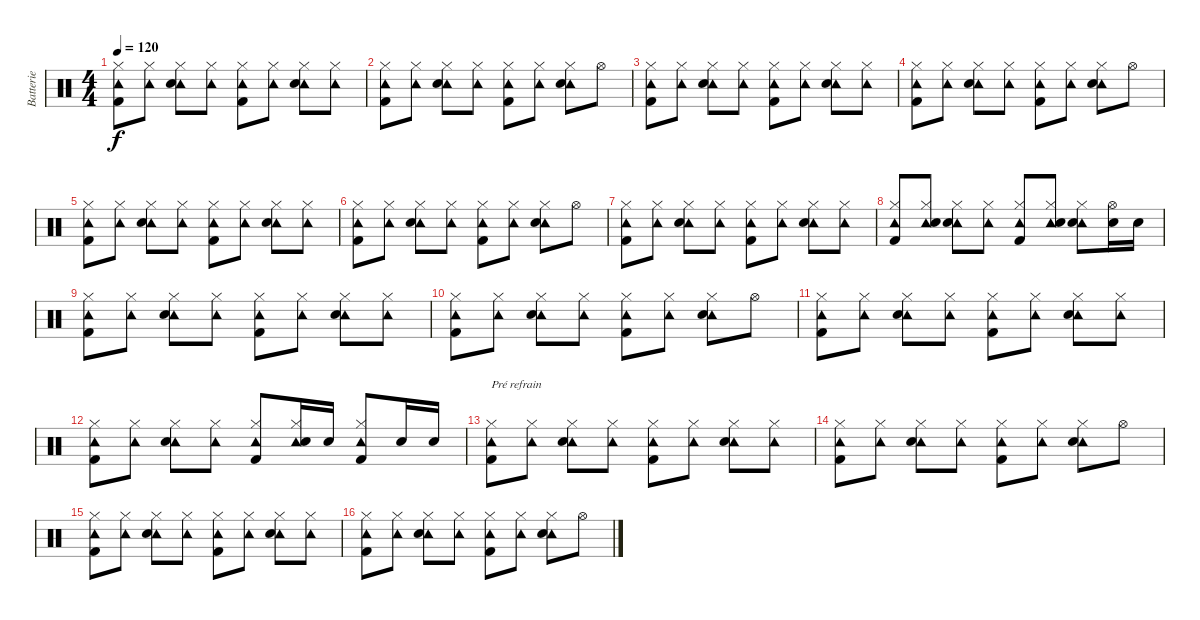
\track ("Batterie" "Batterie") {instrument percussion}
\staff {score}
\articulation defaults
\ts (4 4)
\tempo 120
\clef neutral
\ks c
("Tambourine (hit)" "Hi-Hat (closed)" "Kick (hit) 2").8{dy f} ("Tambourine (hit)" "Hi-Hat (closed)").8 ("Tambourine (hit)" "Hi-Hat (closed)" "Electric Snare (hit)").8 ("Tambourine (hit)" "Hi-Hat (closed)").8 ("Tambourine (hit)" "Hi-Hat (closed)" "Kick (hit) 2").8 ("Tambourine (hit)" "Hi-Hat (closed)").8 ("Tambourine (hit)" "Hi-Hat (closed)" "Electric Snare (hit)").8 ("Tambourine (hit)" "Hi-Hat (closed)").8 |
("Tambourine (hit)" "Hi-Hat (closed)" "Kick (hit) 2").8 ("Tambourine (hit)" "Hi-Hat (closed)").8 ("Tambourine (hit)" "Hi-Hat (closed)" "Electric Snare (hit)").8 ("Tambourine (hit)" "Hi-Hat (closed)").8 ("Tambourine (hit)" "Hi-Hat (closed)" "Kick (hit) 2").8 ("Tambourine (hit)" "Hi-Hat (closed)").8 ("Tambourine (hit)" "Hi-Hat (closed)" "Electric Snare (hit)").8 "Hi-Hat (open)".8 |
("Tambourine (hit)" "Hi-Hat (closed)" "Kick (hit) 2").8 ("Tambourine (hit)" "Hi-Hat (closed)").8 ("Tambourine (hit)" "Hi-Hat (closed)" "Electric Snare (hit)").8 ("Tambourine (hit)" "Hi-Hat (closed)").8 ("Tambourine (hit)" "Hi-Hat (closed)" "Kick (hit) 2").8 ("Tambourine (hit)" "Hi-Hat (closed)").8 ("Tambourine (hit)" "Hi-Hat (closed)" "Electric Snare (hit)").8 ("Tambourine (hit)" "Hi-Hat (closed)").8 |
("Tambourine (hit)" "Hi-Hat (closed)" "Kick (hit) 2").8 ("Tambourine (hit)" "Hi-Hat (closed)").8 ("Tambourine (hit)" "Hi-Hat (closed)" "Electric Snare (hit)").8 ("Tambourine (hit)" "Hi-Hat (closed)").8 ("Tambourine (hit)" "Hi-Hat (closed)" "Kick (hit) 2").8 ("Tambourine (hit)" "Hi-Hat (closed)").8 ("Tambourine (hit)" "Hi-Hat (closed)" "Electric Snare (hit)").8 "Hi-Hat (open)".8 |
("Tambourine (hit)" "Hi-Hat (closed)" "Kick (hit) 2").8 ("Tambourine (hit)" "Hi-Hat (closed)").8 ("Tambourine (hit)" "Hi-Hat (closed)" "Electric Snare (hit)").8 ("Tambourine (hit)" "Hi-Hat (closed)").8 ("Tambourine (hit)" "Hi-Hat (closed)" "Kick (hit) 2").8 ("Tambourine (hit)" "Hi-Hat (closed)").8 ("Tambourine (hit)" "Hi-Hat (closed)" "Electric Snare (hit)").8 ("Tambourine (hit)" "Hi-Hat (closed)").8 |
("Tambourine (hit)" "Hi-Hat (closed)" "Kick (hit) 2").8 ("Tambourine (hit)" "Hi-Hat (closed)").8 ("Tambourine (hit)" "Hi-Hat (closed)" "Electric Snare (hit)").8 ("Tambourine (hit)" "Hi-Hat (closed)").8 ("Tambourine (hit)" "Hi-Hat (closed)" "Kick (hit) 2").8 ("Tambourine (hit)" "Hi-Hat (closed)").8 ("Tambourine (hit)" "Hi-Hat (closed)" "Electric Snare (hit)").8 "Hi-Hat (open)".8 |
("Tambourine (hit)" "Hi-Hat (closed)" "Kick (hit) 2").8 ("Tambourine (hit)" "Hi-Hat (closed)").8 ("Tambourine (hit)" "Hi-Hat (closed)" "Electric Snare (hit)").8 ("Tambourine (hit)" "Hi-Hat (closed)").8 ("Tambourine (hit)" "Hi-Hat (closed)" "Kick (hit) 2").8 ("Tambourine (hit)" "Hi-Hat (closed)").8 ("Tambourine (hit)" "Hi-Hat (closed)" "Electric Snare (hit)").8 ("Tambourine (hit)" "Hi-Hat (closed)").8 |
("Tambourine (hit)" "Hi-Hat (closed)" "Kick (hit) 2").8 ("Tambourine (hit)" "Hi-Hat (closed)" "Electric Snare (hit)").8 ("Tambourine (hit)" "Hi-Hat (closed)" "Electric Snare (hit)").8 ("Tambourine (hit)" "Hi-Hat (closed)").8 ("Tambourine (hit)" "Hi-Hat (closed)" "Kick (hit) 2").8 ("Tambourine (hit)" "Hi-Hat (closed)" "Electric Snare (hit)").8 ("Tambourine (hit)" "Hi-Hat (closed)" "Electric Snare (hit)").8 ("Hi-Hat (open)" "Electric Snare (hit)").16 "Electric Snare (hit)".16 |
("Tambourine (hit)" "Hi-Hat (closed)" "Kick (hit) 2").8 ("Tambourine (hit)" "Hi-Hat (closed)").8 ("Tambourine (hit)" "Hi-Hat (closed)" "Electric Snare (hit)").8 ("Tambourine (hit)" "Hi-Hat (closed)").8 ("Tambourine (hit)" "Hi-Hat (closed)" "Kick (hit) 2").8 ("Tambourine (hit)" "Hi-Hat (closed)").8 ("Tambourine (hit)" "Hi-Hat (closed)" "Electric Snare (hit)").8 ("Tambourine (hit)" "Hi-Hat (closed)").8 |
("Tambourine (hit)" "Hi-Hat (closed)" "Kick (hit) 2").8 ("Tambourine (hit)" "Hi-Hat (closed)").8 ("Tambourine (hit)" "Hi-Hat (closed)" "Electric Snare (hit)").8 ("Tambourine (hit)" "Hi-Hat (closed)").8 ("Tambourine (hit)" "Hi-Hat (closed)" "Kick (hit) 2").8 ("Tambourine (hit)" "Hi-Hat (closed)").8 ("Tambourine (hit)" "Hi-Hat (closed)" "Electric Snare (hit)").8 "Hi-Hat (open)".8 |
("Tambourine (hit)" "Hi-Hat (closed)" "Kick (hit) 2").8 ("Tambourine (hit)" "Hi-Hat (closed)").8 ("Tambourine (hit)" "Hi-Hat (closed)" "Electric Snare (hit)").8 ("Tambourine (hit)" "Hi-Hat (closed)").8 ("Tambourine (hit)" "Hi-Hat (closed)" "Kick (hit) 2").8 ("Tambourine (hit)" "Hi-Hat (closed)").8 ("Tambourine (hit)" "Hi-Hat (closed)" "Electric Snare (hit)").8 ("Tambourine (hit)" "Hi-Hat (closed)").8 |
("Tambourine (hit)" "Hi-Hat (closed)" "Kick (hit) 2").8 ("Tambourine (hit)" "Hi-Hat (closed)").8 ("Tambourine (hit)" "Hi-Hat (closed)" "Electric Snare (hit)").8 ("Tambourine (hit)" "Hi-Hat (closed)").8 ("Tambourine (hit)" "Hi-Hat (closed)" "Kick (hit) 2").8 ("Tambourine (hit)" "Hi-Hat (closed)" "Electric Snare (hit)").16 "Electric Snare (hit)".16 ("Tambourine (hit)" "Hi-Hat (closed)" "Kick (hit) 2").8 "Electric Snare (hit)".16 "Electric Snare (hit)".16 |
("Tambourine (hit)" "Hi-Hat (closed)" "Kick (hit) 2").8{txt "Pré refrain"} ("Tambourine (hit)" "Hi-Hat (closed)").8 ("Tambourine (hit)" "Hi-Hat (closed)" "Electric Snare (hit)").8 ("Tambourine (hit)" "Hi-Hat (closed)").8 ("Tambourine (hit)" "Hi-Hat (closed)" "Kick (hit) 2").8 ("Tambourine (hit)" "Hi-Hat (closed)").8 ("Tambourine (hit)" "Hi-Hat (closed)" "Electric Snare (hit)").8 ("Tambourine (hit)" "Hi-Hat (closed)").8 |
("Tambourine (hit)" "Hi-Hat (closed)" "Kick (hit) 2").8 ("Tambourine (hit)" "Hi-Hat (closed)").8 ("Tambourine (hit)" "Hi-Hat (closed)" "Electric Snare (hit)").8 ("Tambourine (hit)" "Hi-Hat (closed)").8 ("Tambourine (hit)" "Hi-Hat (closed)" "Kick (hit) 2").8 ("Tambourine (hit)" "Hi-Hat (closed)").8 ("Tambourine (hit)" "Hi-Hat (closed)" "Electric Snare (hit)").8 "Hi-Hat (open)".8 |
("Tambourine (hit)" "Hi-Hat (closed)" "Kick (hit) 2").8 ("Tambourine (hit)" "Hi-Hat (closed)").8 ("Tambourine (hit)" "Hi-Hat (closed)" "Electric Snare (hit)").8 ("Tambourine (hit)" "Hi-Hat (closed)").8 ("Tambourine (hit)" "Hi-Hat (closed)" "Kick (hit) 2").8 ("Tambourine (hit)" "Hi-Hat (closed)").8 ("Tambourine (hit)" "Hi-Hat (closed)" "Electric Snare (hit)").8 ("Tambourine (hit)" "Hi-Hat (closed)").8 |
("Tambourine (hit)" "Hi-Hat (closed)" "Kick (hit) 2").8 ("Tambourine (hit)" "Hi-Hat (closed)").8 ("Tambourine (hit)" "Hi-Hat (closed)" "Electric Snare (hit)").8 ("Tambourine (hit)" "Hi-Hat (closed)").8 ("Tambourine (hit)" "Hi-Hat (closed)" "Kick (hit) 2").8 ("Tambourine (hit)" "Hi-Hat (closed)").8 ("Tambourine (hit)" "Hi-Hat (closed)" "Electric Snare (hit)").8 "Hi-Hat (open)".8
